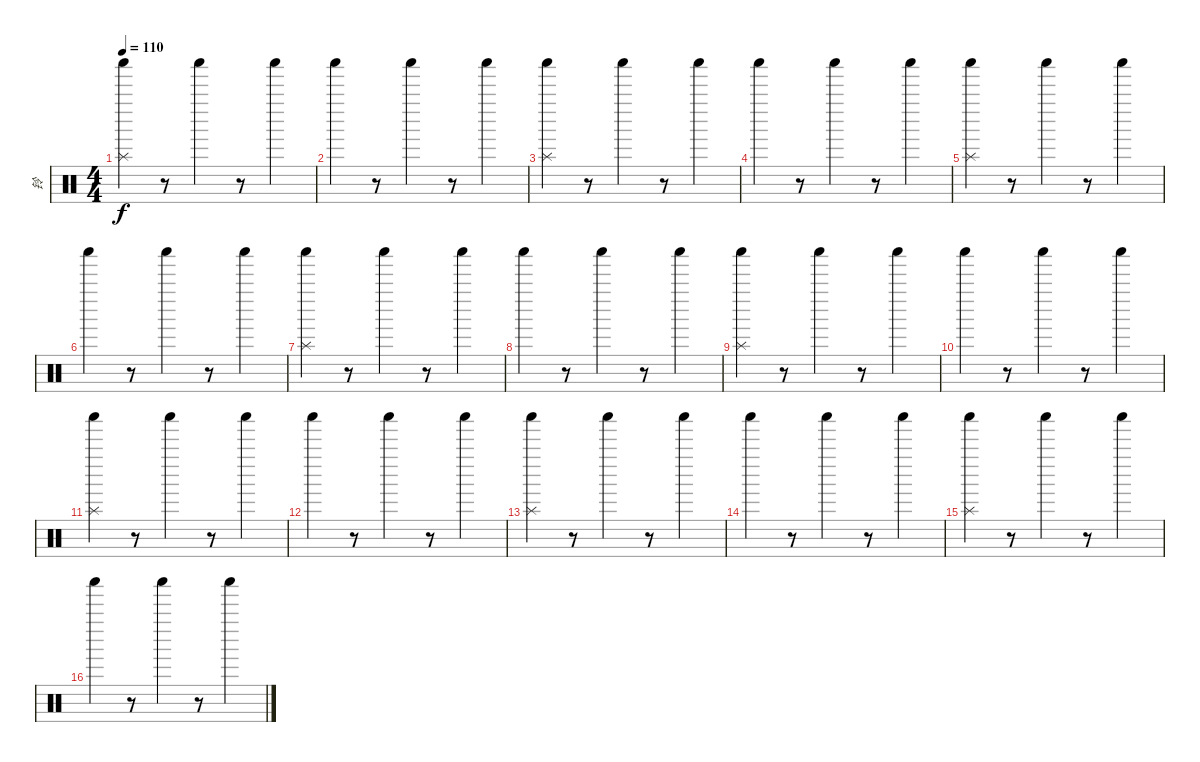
\track ("铃" "铃") {instrument percussion}
\staff {score}
\articulation defaults
\ts (4 4)
\tempo 110
\clef neutral
\ks c
("Shaker (hit)" "Splash (hit)").4{dy f} r.8 "Shaker (hit)".4 r.8 "Shaker (hit)".4 |
"Shaker (hit)".4 r.8 "Shaker (hit)".4 r.8 "Shaker (hit)".4 |
("Shaker (hit)" "Splash (hit)").4 r.8 "Shaker (hit)".4 r.8 "Shaker (hit)".4 |
"Shaker (hit)".4 r.8 "Shaker (hit)".4 r.8 "Shaker (hit)".4 |
("Shaker (hit)" "Splash (hit)").4 r.8 "Shaker (hit)".4 r.8 "Shaker (hit)".4 |
"Shaker (hit)".4 r.8 "Shaker (hit)".4 r.8 "Shaker (hit)".4 |
("Shaker (hit)" "Splash (hit)").4 r.8 "Shaker (hit)".4 r.8 "Shaker (hit)".4 |
"Shaker (hit)".4 r.8 "Shaker (hit)".4 r.8 "Shaker (hit)".4 |
("Shaker (hit)" "Splash (hit)").4 r.8 "Shaker (hit)".4 r.8 "Shaker (hit)".4 |
"Shaker (hit)".4 r.8 "Shaker (hit)".4 r.8 "Shaker (hit)".4 |
("Shaker (hit)" "Splash (hit)").4 r.8 "Shaker (hit)".4 r.8 "Shaker (hit)".4 |
"Shaker (hit)".4 r.8 "Shaker (hit)".4 r.8 "Shaker (hit)".4 |
("Shaker (hit)" "Splash (hit)").4 r.8 "Shaker (hit)".4 r.8 "Shaker (hit)".4 |
"Shaker (hit)".4 r.8 "Shaker (hit)".4 r.8 "Shaker (hit)".4 |
("Shaker (hit)" "Splash (hit)").4 r.8 "Shaker (hit)".4 r.8 "Shaker (hit)".4 |
"Shaker (hit)".4 r.8 "Shaker (hit)".4 r.8 "Shaker (hit)".4
